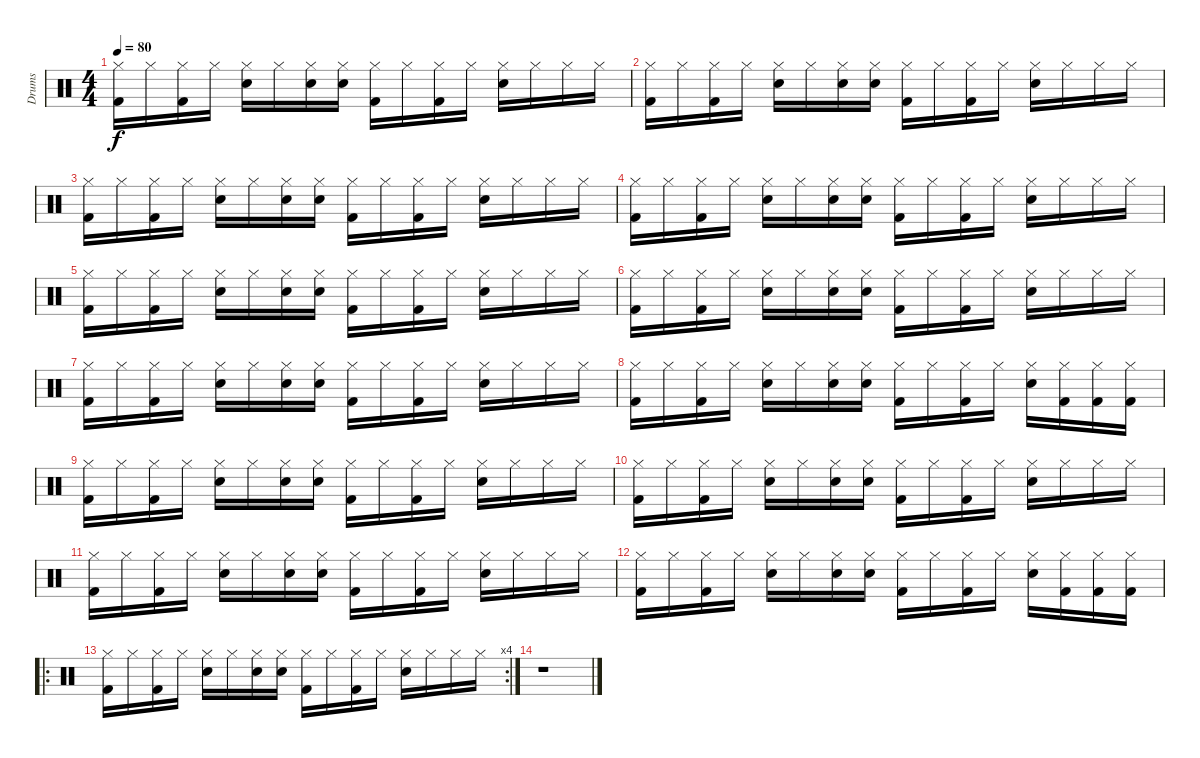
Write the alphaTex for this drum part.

\track ("Drums" "Drums") {instrument percussion}
\staff {score}
\articulation defaults
\ts (4 4)
\tempo 80
\clef neutral
\ks c
("Hi-Hat (closed)" "Kick (hit) 2").16{dy f} "Hi-Hat (closed)".16 ("Hi-Hat (closed)" "Kick (hit) 2").16 "Hi-Hat (closed)".16 ("Hi-Hat (closed)" "Electric Snare (hit)").16 "Hi-Hat (closed)".16 ("Hi-Hat (closed)" "Electric Snare (hit)").16 ("Hi-Hat (closed)" "Electric Snare (hit)").16 ("Hi-Hat (closed)" "Kick (hit) 2").16 "Hi-Hat (closed)".16 ("Hi-Hat (closed)" "Kick (hit) 2").16 "Hi-Hat (closed)".16 ("Hi-Hat (closed)" "Electric Snare (hit)").16 "Hi-Hat (closed)".16 "Hi-Hat (closed)".16 "Hi-Hat (closed)".16 |
("Hi-Hat (closed)" "Kick (hit) 2").16 "Hi-Hat (closed)".16 ("Hi-Hat (closed)" "Kick (hit) 2").16 "Hi-Hat (closed)".16 ("Hi-Hat (closed)" "Electric Snare (hit)").16 "Hi-Hat (closed)".16 ("Hi-Hat (closed)" "Electric Snare (hit)").16 ("Hi-Hat (closed)" "Electric Snare (hit)").16 ("Hi-Hat (closed)" "Kick (hit) 2").16 "Hi-Hat (closed)".16 ("Hi-Hat (closed)" "Kick (hit) 2").16 "Hi-Hat (closed)".16 ("Hi-Hat (closed)" "Electric Snare (hit)").16 "Hi-Hat (closed)".16 "Hi-Hat (closed)".16 "Hi-Hat (closed)".16 |
("Hi-Hat (closed)" "Kick (hit) 2").16 "Hi-Hat (closed)".16 ("Hi-Hat (closed)" "Kick (hit) 2").16 "Hi-Hat (closed)".16 ("Hi-Hat (closed)" "Electric Snare (hit)").16 "Hi-Hat (closed)".16 ("Hi-Hat (closed)" "Electric Snare (hit)").16 ("Hi-Hat (closed)" "Electric Snare (hit)").16 ("Hi-Hat (closed)" "Kick (hit) 2").16 "Hi-Hat (closed)".16 ("Hi-Hat (closed)" "Kick (hit) 2").16 "Hi-Hat (closed)".16 ("Hi-Hat (closed)" "Electric Snare (hit)").16 "Hi-Hat (closed)".16 "Hi-Hat (closed)".16 "Hi-Hat (closed)".16 |
("Hi-Hat (closed)" "Kick (hit) 2").16 "Hi-Hat (closed)".16 ("Hi-Hat (closed)" "Kick (hit) 2").16 "Hi-Hat (closed)".16 ("Hi-Hat (closed)" "Electric Snare (hit)").16 "Hi-Hat (closed)".16 ("Hi-Hat (closed)" "Electric Snare (hit)").16 ("Hi-Hat (closed)" "Electric Snare (hit)").16 ("Hi-Hat (closed)" "Kick (hit) 2").16 "Hi-Hat (closed)".16 ("Hi-Hat (closed)" "Kick (hit) 2").16 "Hi-Hat (closed)".16 ("Hi-Hat (closed)" "Electric Snare (hit)").16 "Hi-Hat (closed)".16 "Hi-Hat (closed)".16 "Hi-Hat (closed)".16 |
("Hi-Hat (closed)" "Kick (hit) 2").16 "Hi-Hat (closed)".16 ("Hi-Hat (closed)" "Kick (hit) 2").16 "Hi-Hat (closed)".16 ("Hi-Hat (closed)" "Electric Snare (hit)").16 "Hi-Hat (closed)".16 ("Hi-Hat (closed)" "Electric Snare (hit)").16 ("Hi-Hat (closed)" "Electric Snare (hit)").16 ("Hi-Hat (closed)" "Kick (hit) 2").16 "Hi-Hat (closed)".16 ("Hi-Hat (closed)" "Kick (hit) 2").16 "Hi-Hat (closed)".16 ("Hi-Hat (closed)" "Electric Snare (hit)").16 "Hi-Hat (closed)".16 "Hi-Hat (closed)".16 "Hi-Hat (closed)".16 |
("Hi-Hat (closed)" "Kick (hit) 2").16 "Hi-Hat (closed)".16 ("Hi-Hat (closed)" "Kick (hit) 2").16 "Hi-Hat (closed)".16 ("Hi-Hat (closed)" "Electric Snare (hit)").16 "Hi-Hat (closed)".16 ("Hi-Hat (closed)" "Electric Snare (hit)").16 ("Hi-Hat (closed)" "Electric Snare (hit)").16 ("Hi-Hat (closed)" "Kick (hit) 2").16 "Hi-Hat (closed)".16 ("Hi-Hat (closed)" "Kick (hit) 2").16 "Hi-Hat (closed)".16 ("Hi-Hat (closed)" "Electric Snare (hit)").16 "Hi-Hat (closed)".16 "Hi-Hat (closed)".16 "Hi-Hat (closed)".16 |
("Hi-Hat (closed)" "Kick (hit) 2").16 "Hi-Hat (closed)".16 ("Hi-Hat (closed)" "Kick (hit) 2").16 "Hi-Hat (closed)".16 ("Hi-Hat (closed)" "Electric Snare (hit)").16 "Hi-Hat (closed)".16 ("Hi-Hat (closed)" "Electric Snare (hit)").16 ("Hi-Hat (closed)" "Electric Snare (hit)").16 ("Hi-Hat (closed)" "Kick (hit) 2").16 "Hi-Hat (closed)".16 ("Hi-Hat (closed)" "Kick (hit) 2").16 "Hi-Hat (closed)".16 ("Hi-Hat (closed)" "Electric Snare (hit)").16 "Hi-Hat (closed)".16 "Hi-Hat (closed)".16 "Hi-Hat (closed)".16 |
("Hi-Hat (closed)" "Kick (hit) 2").16 "Hi-Hat (closed)".16 ("Hi-Hat (closed)" "Kick (hit) 2").16 "Hi-Hat (closed)".16 ("Hi-Hat (closed)" "Electric Snare (hit)").16 "Hi-Hat (closed)".16 ("Hi-Hat (closed)" "Electric Snare (hit)").16 ("Hi-Hat (closed)" "Electric Snare (hit)").16 ("Hi-Hat (closed)" "Kick (hit) 2").16 "Hi-Hat (closed)".16 ("Hi-Hat (closed)" "Kick (hit) 2").16 "Hi-Hat (closed)".16 ("Hi-Hat (closed)" "Electric Snare (hit)").16 ("Hi-Hat (closed)" "Kick (hit) 2").16 ("Hi-Hat (closed)" "Kick (hit) 2").16 ("Hi-Hat (closed)" "Kick (hit) 2").16 |
("Hi-Hat (closed)" "Kick (hit) 2").16 "Hi-Hat (closed)".16 ("Hi-Hat (closed)" "Kick (hit) 2").16 "Hi-Hat (closed)".16 ("Hi-Hat (closed)" "Electric Snare (hit)").16 "Hi-Hat (closed)".16 ("Hi-Hat (closed)" "Electric Snare (hit)").16 ("Hi-Hat (closed)" "Electric Snare (hit)").16 ("Hi-Hat (closed)" "Kick (hit) 2").16 "Hi-Hat (closed)".16 ("Hi-Hat (closed)" "Kick (hit) 2").16 "Hi-Hat (closed)".16 ("Hi-Hat (closed)" "Electric Snare (hit)").16 "Hi-Hat (closed)".16 "Hi-Hat (closed)".16 "Hi-Hat (closed)".16 |
("Hi-Hat (closed)" "Kick (hit) 2").16 "Hi-Hat (closed)".16 ("Hi-Hat (closed)" "Kick (hit) 2").16 "Hi-Hat (closed)".16 ("Hi-Hat (closed)" "Electric Snare (hit)").16 "Hi-Hat (closed)".16 ("Hi-Hat (closed)" "Electric Snare (hit)").16 ("Hi-Hat (closed)" "Electric Snare (hit)").16 ("Hi-Hat (closed)" "Kick (hit) 2").16 "Hi-Hat (closed)".16 ("Hi-Hat (closed)" "Kick (hit) 2").16 "Hi-Hat (closed)".16 ("Hi-Hat (closed)" "Electric Snare (hit)").16 "Hi-Hat (closed)".16 "Hi-Hat (closed)".16 "Hi-Hat (closed)".16 |
("Hi-Hat (closed)" "Kick (hit) 2").16 "Hi-Hat (closed)".16 ("Hi-Hat (closed)" "Kick (hit) 2").16 "Hi-Hat (closed)".16 ("Hi-Hat (closed)" "Electric Snare (hit)").16 "Hi-Hat (closed)".16 ("Hi-Hat (closed)" "Electric Snare (hit)").16 ("Hi-Hat (closed)" "Electric Snare (hit)").16 ("Hi-Hat (closed)" "Kick (hit) 2").16 "Hi-Hat (closed)".16 ("Hi-Hat (closed)" "Kick (hit) 2").16 "Hi-Hat (closed)".16 ("Hi-Hat (closed)" "Electric Snare (hit)").16 "Hi-Hat (closed)".16 "Hi-Hat (closed)".16 "Hi-Hat (closed)".16 |
("Hi-Hat (closed)" "Kick (hit) 2").16 "Hi-Hat (closed)".16 ("Hi-Hat (closed)" "Kick (hit) 2").16 "Hi-Hat (closed)".16 ("Hi-Hat (closed)" "Electric Snare (hit)").16 "Hi-Hat (closed)".16 ("Hi-Hat (closed)" "Electric Snare (hit)").16 ("Hi-Hat (closed)" "Electric Snare (hit)").16 ("Hi-Hat (closed)" "Kick (hit) 2").16 "Hi-Hat (closed)".16 ("Hi-Hat (closed)" "Kick (hit) 2").16 "Hi-Hat (closed)".16 ("Hi-Hat (closed)" "Electric Snare (hit)").16 ("Hi-Hat (closed)" "Kick (hit) 2").16 ("Hi-Hat (closed)" "Kick (hit) 2").16 ("Hi-Hat (closed)" "Kick (hit) 2").16 |
\ro
\rc 4
("Hi-Hat (closed)" "Kick (hit) 2").16 "Hi-Hat (closed)".16 ("Hi-Hat (closed)" "Kick (hit) 2").16 "Hi-Hat (closed)".16 ("Hi-Hat (closed)" "Electric Snare (hit)").16 "Hi-Hat (closed)".16 ("Hi-Hat (closed)" "Electric Snare (hit)").16 ("Hi-Hat (closed)" "Electric Snare (hit)").16 ("Hi-Hat (closed)" "Kick (hit) 2").16 "Hi-Hat (closed)".16 ("Hi-Hat (closed)" "Kick (hit) 2").16 "Hi-Hat (closed)".16 ("Hi-Hat (closed)" "Electric Snare (hit)").16 "Hi-Hat (closed)".16 "Hi-Hat (closed)".16 "Hi-Hat (closed)".16 |
r.1
